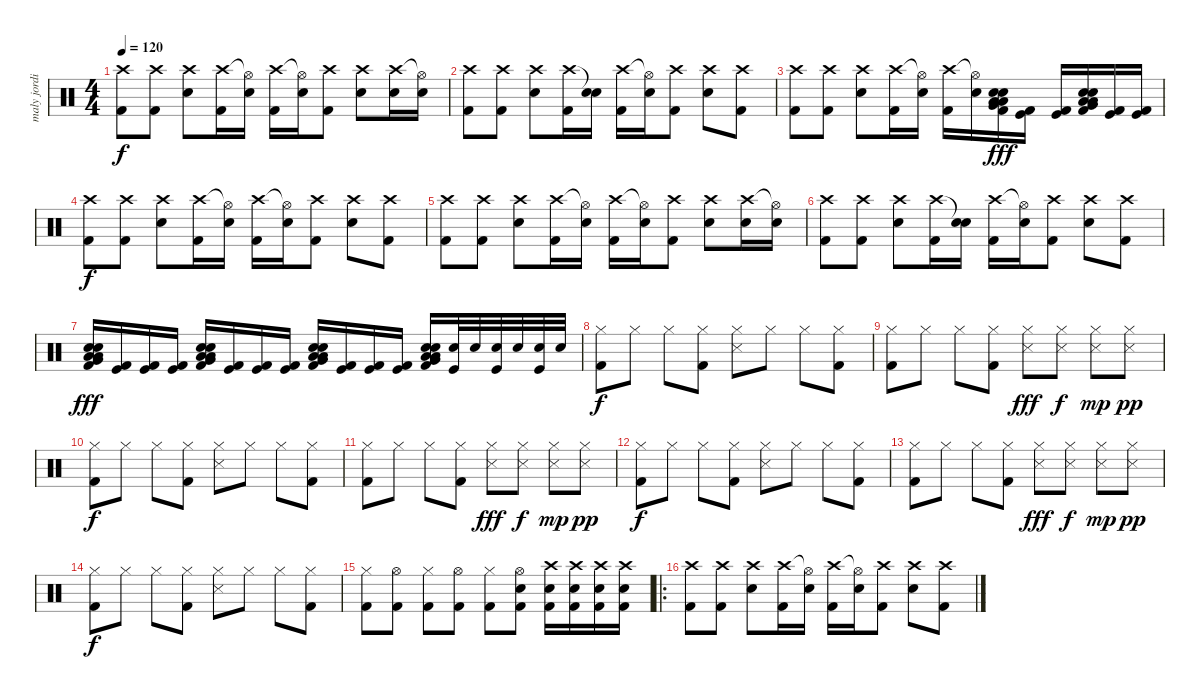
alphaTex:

\track ("maly jordison" "maly jordi") {instrument percussion}
\staff {score}
\articulation defaults
\ts (4 4)
\tempo 120
\clef neutral
\ks c
("Crash high (hit)" "Kick (hit) 2").8{dy f} ("Crash high (hit)" "Kick (hit) 2").8 ("Crash high (hit)" "Electric Snare (hit)").8 ("Crash high (hit)" "Kick (hit) 2").16 ("Hi-Hat (open)"{t} "Electric Snare (hit)").16 ("Crash high (hit)" "Kick (hit) 2").16 ("Hi-Hat (open)"{t} "Electric Snare (hit)").16 ("Crash high (hit)" "Kick (hit) 2").8 ("Crash high (hit)" "Electric Snare (hit)").8 ("Crash high (hit)" "Electric Snare (hit)").16 ("Hi-Hat (open)"{t} "Electric Snare (hit)").16 |
("Crash high (hit)" "Kick (hit) 2").8 ("Crash high (hit)" "Kick (hit) 2").8 ("Crash high (hit)" "Electric Snare (hit)").8 ("Crash high (hit)" "Kick (hit) 2").16 ("Snare (hit)"{t} "Electric Snare (hit)").16 ("Crash high (hit)" "Kick (hit) 2").16 ("Hi-Hat (open)"{t} "Electric Snare (hit)").16 ("Crash high (hit)" "Kick (hit) 2").8 ("Crash high (hit)" "Electric Snare (hit)").8 ("Crash high (hit)" "Kick (hit) 2").8 |
("Crash high (hit)" "Kick (hit) 2").8 ("Crash high (hit)" "Kick (hit) 2").8 ("Crash high (hit)" "Electric Snare (hit)").8 ("Crash high (hit)" "Kick (hit) 2").16 ("Hi-Hat (open)"{t} "Electric Snare (hit)").16 ("Crash high (hit)" "Kick (hit) 2").16 ("Hi-Hat (open)"{t} "Electric Snare (hit)").16 ("Kick (hit) 2" "Very Low Tom (hit)" "Low Floor Tom (hit)" "Low Floor Tom (hit)" "Electric Snare (hit)" "Electric Snare (hit)").16{dy fff} ("Kick (hit)" "Kick (hit) 2").16 ("Kick (hit)" "Kick (hit) 2").16 ("Kick (hit) 2" "Very Low Tom (hit)" "Low Floor Tom (hit)" "Low Floor Tom (hit)" "Electric Snare (hit)" "Electric Snare (hit)").16 ("Kick (hit)" "Kick (hit) 2").16 ("Kick (hit)" "Kick (hit) 2").16 |
("Crash high (hit)" "Kick (hit) 2").8{dy f} ("Crash high (hit)" "Kick (hit) 2").8 ("Crash high (hit)" "Electric Snare (hit)").8 ("Crash high (hit)" "Kick (hit) 2").16 ("Hi-Hat (open)"{t} "Electric Snare (hit)").16 ("Crash high (hit)" "Kick (hit) 2").16 ("Hi-Hat (open)"{t} "Electric Snare (hit)").16 ("Crash high (hit)" "Kick (hit) 2").8 ("Crash high (hit)" "Electric Snare (hit)").8 ("Crash high (hit)" "Kick (hit) 2").8 |
("Crash high (hit)" "Kick (hit) 2").8 ("Crash high (hit)" "Kick (hit) 2").8 ("Crash high (hit)" "Electric Snare (hit)").8 ("Crash high (hit)" "Kick (hit) 2").16 ("Hi-Hat (open)"{t} "Electric Snare (hit)").16 ("Crash high (hit)" "Kick (hit) 2").16 ("Hi-Hat (open)"{t} "Electric Snare (hit)").16 ("Crash high (hit)" "Kick (hit) 2").8 ("Crash high (hit)" "Electric Snare (hit)").8 ("Crash high (hit)" "Electric Snare (hit)").16 ("Hi-Hat (open)"{t} "Electric Snare (hit)").16 |
("Crash high (hit)" "Kick (hit) 2").8 ("Crash high (hit)" "Kick (hit) 2").8 ("Crash high (hit)" "Electric Snare (hit)").8 ("Crash high (hit)" "Kick (hit) 2").16 ("Snare (hit)"{t} "Electric Snare (hit)").16 ("Crash high (hit)" "Kick (hit) 2").16 ("Hi-Hat (open)"{t} "Electric Snare (hit)").16 ("Crash high (hit)" "Kick (hit) 2").8 ("Crash high (hit)" "Electric Snare (hit)").8 ("Crash high (hit)" "Kick (hit) 2").8 |
("Kick (hit) 2" "Very Low Tom (hit)" "Low Floor Tom (hit)" "Low Floor Tom (hit)" "Electric Snare (hit)" "Electric Snare (hit)").16{dy fff} ("Kick (hit)" "Kick (hit) 2").16 ("Kick (hit)" "Kick (hit) 2").16 ("Kick (hit)" "Kick (hit) 2").16 ("Kick (hit) 2" "Very Low Tom (hit)" "Low Floor Tom (hit)" "Low Floor Tom (hit)" "Electric Snare (hit)" "Electric Snare (hit)").16 ("Kick (hit)" "Kick (hit) 2").16 ("Kick (hit)" "Kick (hit) 2").16 ("Kick (hit)" "Kick (hit) 2").16 ("Kick (hit) 2" "Very Low Tom (hit)" "Low Floor Tom (hit)" "Low Floor Tom (hit)" "Electric Snare (hit)" "Electric Snare (hit)").16 ("Kick (hit)" "Kick (hit) 2").16 ("Kick (hit)" "Kick (hit) 2").16 ("Kick (hit)" "Kick (hit) 2").16 ("Kick (hit) 2" "Very Low Tom (hit)" "Low Floor Tom (hit)" "Low Floor Tom (hit)" "Electric Snare (hit)" "Electric Snare (hit)").16 ("Kick (hit)" "Electric Snare (hit)").32 "Electric Snare (hit)".32 ("Kick (hit)" "Electric Snare (hit)").32 "Electric Snare (hit)".32 ("Kick (hit)" "Electric Snare (hit)").32 "Electric Snare (hit)".32 |
("Hi-Hat (closed)" "Kick (hit) 2").8{dy f} "Hi-Hat (closed)".8 "Hi-Hat (closed)".8 ("Hi-Hat (closed)" "Kick (hit) 2").8 ("Hi-Hat (closed)" "Metronome (hit)").8 "Hi-Hat (closed)".8 "Hi-Hat (closed)".8 ("Hi-Hat (closed)" "Kick (hit) 2").8 |
("Hi-Hat (closed)" "Kick (hit) 2").8 "Hi-Hat (closed)".8 "Hi-Hat (closed)".8 ("Hi-Hat (closed)" "Kick (hit) 2").8 ("Hi-Hat (closed)" "Metronome (hit)").8{dy fff} ("Hi-Hat (closed)" "Metronome (hit)").8{dy f} ("Hi-Hat (closed)" "Metronome (hit)").8{dy mp} ("Hi-Hat (closed)" "Metronome (hit)").8{dy pp} |
("Hi-Hat (closed)" "Kick (hit) 2").8{dy f} "Hi-Hat (closed)".8 "Hi-Hat (closed)".8 ("Hi-Hat (closed)" "Kick (hit) 2").8 ("Hi-Hat (closed)" "Metronome (hit)").8 "Hi-Hat (closed)".8 "Hi-Hat (closed)".8 ("Hi-Hat (closed)" "Kick (hit) 2").8 |
("Hi-Hat (closed)" "Kick (hit) 2").8 "Hi-Hat (closed)".8 "Hi-Hat (closed)".8 ("Hi-Hat (closed)" "Kick (hit) 2").8 ("Hi-Hat (closed)" "Metronome (hit)").8{dy fff} ("Hi-Hat (closed)" "Metronome (hit)").8{dy f} ("Hi-Hat (closed)" "Metronome (hit)").8{dy mp} ("Hi-Hat (closed)" "Metronome (hit)").8{dy pp} |
("Hi-Hat (closed)" "Kick (hit) 2").8{dy f} "Hi-Hat (closed)".8 "Hi-Hat (closed)".8 ("Hi-Hat (closed)" "Kick (hit) 2").8 ("Hi-Hat (closed)" "Metronome (hit)").8 "Hi-Hat (closed)".8 "Hi-Hat (closed)".8 ("Hi-Hat (closed)" "Kick (hit) 2").8 |
("Hi-Hat (closed)" "Kick (hit) 2").8 "Hi-Hat (closed)".8 "Hi-Hat (closed)".8 ("Hi-Hat (closed)" "Kick (hit) 2").8 ("Hi-Hat (closed)" "Metronome (hit)").8{dy fff} ("Hi-Hat (closed)" "Metronome (hit)").8{dy f} ("Hi-Hat (closed)" "Metronome (hit)").8{dy mp} ("Hi-Hat (closed)" "Metronome (hit)").8{dy pp} |
("Hi-Hat (closed)" "Kick (hit) 2").8{dy f} "Hi-Hat (closed)".8 "Hi-Hat (closed)".8 ("Hi-Hat (closed)" "Kick (hit) 2").8 ("Hi-Hat (closed)" "Metronome (hit)").8 "Hi-Hat (closed)".8 "Hi-Hat (closed)".8 ("Hi-Hat (closed)" "Kick (hit) 2").8 |
("Hi-Hat (closed)" "Kick (hit) 2").8 ("Hi-Hat (open)" "Kick (hit) 2").8 ("Hi-Hat (closed)" "Kick (hit) 2").8 ("Hi-Hat (open)" "Kick (hit) 2").8 ("Hi-Hat (closed)" "Kick (hit) 2").8 ("Hi-Hat (open)" "Electric Snare (hit)" "Kick (hit) 2").8 ("Crash high (hit)" "Electric Snare (hit)" "Kick (hit) 2").16 ("Crash high (hit)" "Electric Snare (hit)" "Kick (hit) 2").16 ("Crash high (hit)" "Electric Snare (hit)" "Kick (hit) 2").16 ("Crash high (hit)" "Electric Snare (hit)" "Kick (hit) 2").16 |
\ro
("Crash high (hit)" "Kick (hit) 2").8 ("Crash high (hit)" "Kick (hit) 2").8 ("Crash high (hit)" "Electric Snare (hit)").8 ("Crash high (hit)" "Kick (hit) 2").16 ("Hi-Hat (open)"{t} "Electric Snare (hit)").16 ("Crash high (hit)" "Kick (hit) 2").16 ("Hi-Hat (open)"{t} "Electric Snare (hit)").16 ("Crash high (hit)" "Kick (hit) 2").8 ("Crash high (hit)" "Electric Snare (hit)").8 ("Crash high (hit)" "Kick (hit) 2").8
